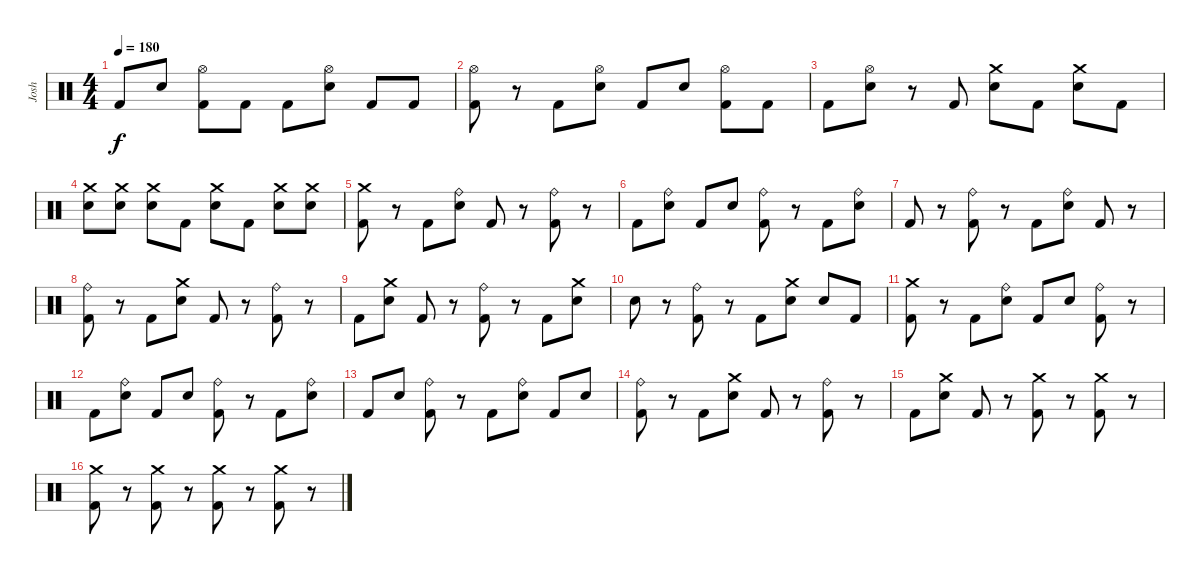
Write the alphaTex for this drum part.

\track ("Josh" "Josh") {instrument percussion}
\staff {score}
\articulation defaults
\ts (4 4)
\tempo 180
\clef neutral
\ks c "Kick (hit) 2".8{dy f} "Electric Snare (hit)".8
("Hi-Hat (open)" "Kick (hit) 2").8 "Kick (hit) 2".8 "Kick (hit) 2".8 ("Hi-Hat (open)" "Electric Snare (hit)").8 "Kick (hit) 2".8 "Kick (hit) 2".8 |
("Hi-Hat (open)" "Kick (hit) 2").8 r.8 "Kick (hit) 2".8 ("Hi-Hat (open)" "Electric Snare (hit)").8 "Kick (hit) 2".8 "Electric Snare (hit)".8 ("Hi-Hat (open)" "Kick (hit) 2").8 "Kick (hit) 2".8 |
"Kick (hit) 2".8 ("Hi-Hat (open)" "Electric Snare (hit)").8 r.8 "Kick (hit) 2".8 ("Crash medium (hit)" "Electric Snare (hit)").8 "Kick (hit) 2".8 ("Crash medium (hit)" "Electric Snare (hit)").8 "Kick (hit) 2".8 |
("Crash medium (hit)" "Electric Snare (hit)").8 ("Crash medium (hit)" "Electric Snare (hit)").8 ("Crash medium (hit)" "Electric Snare (hit)").8 "Kick (hit) 2".8 ("Crash medium (hit)" "Electric Snare (hit)").8 "Kick (hit) 2".8 ("Crash medium (hit)" "Electric Snare (hit)").8 ("Crash medium (hit)" "Electric Snare (hit)").8 |
("Crash medium (hit)" "Kick (hit) 2").8 r.8 "Kick (hit) 2".8 ("Ride (bell)" "Electric Snare (hit)").8 "Kick (hit) 2".8 r.8 ("Ride (bell)" "Kick (hit) 2").8 r.8 |
"Kick (hit) 2".8 ("Ride (bell)" "Electric Snare (hit)").8 "Kick (hit) 2".8 "Electric Snare (hit)".8 ("Ride (bell)" "Kick (hit) 2").8 r.8 "Kick (hit) 2".8 ("Ride (bell)" "Electric Snare (hit)").8 |
"Kick (hit) 2".8 r.8 ("Ride (bell)" "Kick (hit) 2").8 r.8 "Kick (hit) 2".8 ("Ride (bell)" "Electric Snare (hit)").8 "Kick (hit) 2".8 r.8 |
("Ride (bell)" "Kick (hit) 2").8 r.8 "Kick (hit) 2".8 ("Crash medium (hit)" "Electric Snare (hit)").8 "Kick (hit) 2".8 r.8 ("Ride (bell)" "Kick (hit) 2").8 r.8 |
"Kick (hit) 2".8 ("Crash medium (hit)" "Electric Snare (hit)").8 "Kick (hit) 2".8 r.8 ("Ride (bell)" "Kick (hit) 2").8 r.8 "Kick (hit) 2".8 ("Crash medium (hit)" "Electric Snare (hit)").8 |
"Electric Snare (hit)".8 r.8 ("Ride (bell)" "Kick (hit) 2").8 r.8 "Kick (hit) 2".8 ("Crash medium (hit)" "Electric Snare (hit)").8 "Electric Snare (hit)".8 "Kick (hit) 2".8 |
("Crash medium (hit)" "Kick (hit) 2").8 r.8 "Kick (hit) 2".8 ("Ride (bell)" "Electric Snare (hit)").8 "Kick (hit) 2".8 "Electric Snare (hit)".8 ("Ride (bell)" "Kick (hit) 2").8 r.8 |
"Kick (hit) 2".8 ("Ride (bell)" "Electric Snare (hit)").8 "Kick (hit) 2".8 "Electric Snare (hit)".8 ("Ride (bell)" "Kick (hit) 2").8 r.8 "Kick (hit) 2".8 ("Ride (bell)" "Electric Snare (hit)").8 |
"Kick (hit) 2".8 "Electric Snare (hit)".8 ("Ride (bell)" "Kick (hit) 2").8 r.8 "Kick (hit) 2".8 ("Ride (bell)" "Electric Snare (hit)").8 "Kick (hit) 2".8 "Electric Snare (hit)".8 |
("Ride (bell)" "Kick (hit) 2").8 r.8 "Kick (hit) 2".8 ("Crash medium (hit)" "Electric Snare (hit)").8 "Kick (hit) 2".8 r.8 ("Ride (bell)" "Kick (hit) 2").8 r.8 |
"Kick (hit) 2".8 ("Crash medium (hit)" "Electric Snare (hit)").8 "Kick (hit) 2".8 r.8 ("Crash medium (hit)" "Kick (hit) 2").8 r.8 ("Crash medium (hit)" "Kick (hit) 2").8 r.8 |
("Crash medium (hit)" "Kick (hit) 2").8 r.8 ("Crash medium (hit)" "Kick (hit) 2").8 r.8 ("Crash medium (hit)" "Kick (hit) 2").8 r.8 ("Crash medium (hit)" "Kick (hit) 2").8 r.8
